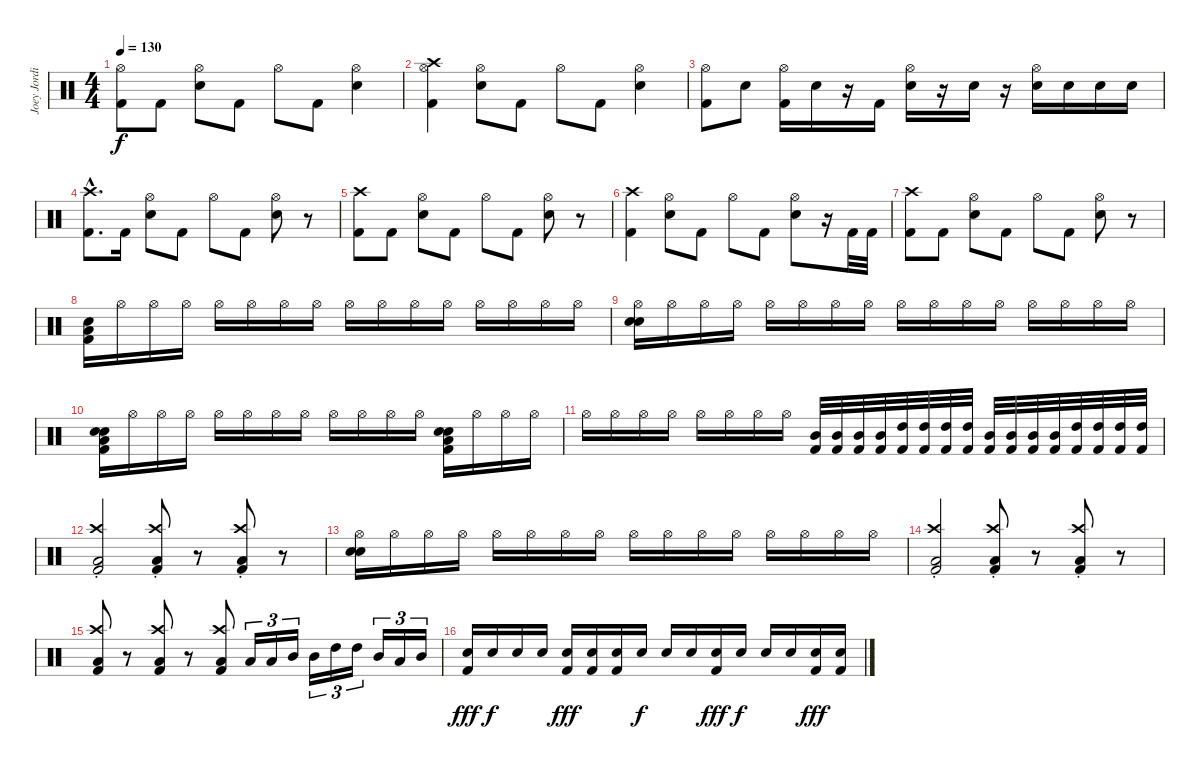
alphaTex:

\track ("Joey Jordison" "Joey Jordi") {instrument percussion}
\staff {score}
\articulation defaults
\ts (4 4)
\tempo 130
\clef neutral
\ks c
("Hi-Hat (open)" "Kick (hit) 2").8{dy f} "Kick (hit) 2".8 ("Hi-Hat (open)" "Electric Snare (hit)").8 "Kick (hit) 2".8 "Hi-Hat (open)".8 "Kick (hit) 2".8 ("Hi-Hat (open)" "Electric Snare (hit)").4 |
("Hi-Hat (open)" "Crash high (hit)" "Kick (hit) 2").4 ("Hi-Hat (open)" "Electric Snare (hit)").8 "Kick (hit) 2".8 "Hi-Hat (open)".8 "Kick (hit) 2".8 ("Hi-Hat (open)" "Electric Snare (hit)").4 |
("Hi-Hat (open)" "Kick (hit) 2").8 "Electric Snare (hit)".8 ("Hi-Hat (open)" "Kick (hit) 2").16 "Electric Snare (hit)".16 r.16 "Kick (hit) 2".16 ("Hi-Hat (open)" "Electric Snare (hit)").16 r.16 "Electric Snare (hit)".16 r.16 ("Hi-Hat (open)" "Electric Snare (hit)").16 "Electric Snare (hit)".16 "Electric Snare (hit)".16 "Electric Snare (hit)".16 |
("Crash high (hit)"{hac} "Kick (hit) 2"{hac}).8{d} "Kick (hit) 2".16 ("Hi-Hat (open)" "Electric Snare (hit)").8 "Kick (hit) 2".8 "Hi-Hat (open)".8 "Kick (hit) 2".8 ("Hi-Hat (open)" "Electric Snare (hit)").8 r.8 |
("Crash high (hit)" "Kick (hit) 2").8 "Kick (hit) 2".8 ("Hi-Hat (open)" "Electric Snare (hit)").8 "Kick (hit) 2".8 "Hi-Hat (open)".8 "Kick (hit) 2".8 ("Hi-Hat (open)" "Electric Snare (hit)").8 r.8 |
("Crash high (hit)" "Kick (hit) 2").4 ("Hi-Hat (open)" "Electric Snare (hit)").8 "Kick (hit) 2".8 "Hi-Hat (open)".8 "Kick (hit) 2".8 ("Hi-Hat (open)" "Electric Snare (hit)").8 r.16 "Kick (hit) 2".32 "Kick (hit) 2".32 |
("Crash high (hit)" "Kick (hit) 2").8 "Kick (hit) 2".8 ("Hi-Hat (open)" "Electric Snare (hit)").8 "Kick (hit) 2".8 "Hi-Hat (open)".8 "Kick (hit) 2".8 ("Hi-Hat (open)" "Electric Snare (hit)").8 r.8 |
("Snare (hit)" "Low Floor Tom (hit)" "Kick (hit) 2").16 "Hi-Hat (open)".16 "Hi-Hat (open)".16 "Hi-Hat (open)".16 "Hi-Hat (open)".16 "Hi-Hat (open)".16 "Hi-Hat (open)".16 "Hi-Hat (open)".16 "Hi-Hat (open)".16 "Hi-Hat (open)".16 "Hi-Hat (open)".16 "Hi-Hat (open)".16 "Hi-Hat (open)".16 "Hi-Hat (open)".16 "Hi-Hat (open)".16 "Hi-Hat (open)".16 |
("Hi-Hat (open)" "Snare (hit)" "Snare (hit)").16 "Hi-Hat (open)".16 "Hi-Hat (open)".16 "Hi-Hat (open)".16 "Hi-Hat (open)".16 "Hi-Hat (open)".16 "Hi-Hat (open)".16 "Hi-Hat (open)".16 "Hi-Hat (open)".16 "Hi-Hat (open)".16 "Hi-Hat (open)".16 "Hi-Hat (open)".16 "Hi-Hat (open)".16 "Hi-Hat (open)".16 "Hi-Hat (open)".16 "Hi-Hat (open)".16 |
("Snare (hit)" "Electric Snare (hit)" "Low Floor Tom (hit)" "Kick (hit) 2").16 "Hi-Hat (open)".16 "Hi-Hat (open)".16 "Hi-Hat (open)".16 "Hi-Hat (open)".16 "Hi-Hat (open)".16 "Hi-Hat (open)".16 "Hi-Hat (open)".16 "Hi-Hat (open)".16 "Hi-Hat (open)".16 "Hi-Hat (open)".16 "Hi-Hat (open)".16 ("Snare (hit)" "Electric Snare (hit)" "Low Floor Tom (hit)" "Kick (hit) 2").16 "Hi-Hat (open)".16 "Hi-Hat (open)".16 "Hi-Hat (open)".16 |
"Hi-Hat (open)".16 "Hi-Hat (open)".16 "Hi-Hat (open)".16 "Hi-Hat (open)".16 "Hi-Hat (open)".16 "Hi-Hat (open)".16 "Hi-Hat (open)".16 "Hi-Hat (open)".16 ("Mid Tom (hit)" "Kick (hit) 2").32 ("Mid Tom (hit)" "Kick (hit) 2").32 ("Mid Tom (hit)" "Kick (hit) 2").32 ("Mid Tom (hit)" "Kick (hit) 2").32 ("High Tom (hit)" "Kick (hit) 2").32 ("High Tom (hit)" "Kick (hit) 2").32 ("High Tom (hit)" "Kick (hit) 2").32 ("High Tom (hit)" "Kick (hit) 2").32 ("Mid Tom (hit)" "Kick (hit) 2").32 ("Mid Tom (hit)" "Kick (hit) 2").32 ("Mid Tom (hit)" "Kick (hit) 2").32 ("Mid Tom (hit)" "Kick (hit) 2").32 ("High Tom (hit)" "Kick (hit) 2").32 ("High Tom (hit)" "Kick (hit) 2").32 ("High Tom (hit)" "Kick (hit) 2").32 ("High Tom (hit)" "Kick (hit) 2").32 |
("Crash high (hit)"{st} "Low Floor Tom (hit)" "Kick (hit) 2").2 ("Crash high (hit)"{st} "Kick (hit) 2" "Low Floor Tom (hit)").8 r.8 ("Crash high (hit)"{st} "Kick (hit) 2" "Low Floor Tom (hit)").8 r.8 |
("Hi-Hat (open)" "Snare (hit)" "Snare (hit)").16 "Hi-Hat (open)".16 "Hi-Hat (open)".16 "Hi-Hat (open)".16 "Hi-Hat (open)".16 "Hi-Hat (open)".16 "Hi-Hat (open)".16 "Hi-Hat (open)".16 "Hi-Hat (open)".16 "Hi-Hat (open)".16 "Hi-Hat (open)".16 "Hi-Hat (open)".16 "Hi-Hat (open)".16 "Hi-Hat (open)".16 "Hi-Hat (open)".16 "Hi-Hat (open)".16 |
("Crash high (hit)"{st} "Low Floor Tom (hit)" "Kick (hit) 2").2 ("Crash high (hit)"{st} "Kick (hit) 2" "Low Floor Tom (hit)").8 r.8 ("Crash high (hit)"{st} "Kick (hit) 2" "Low Floor Tom (hit)").8 r.8 |
("Crash high (hit)" "Kick (hit) 2" "Low Floor Tom (hit)").8 r.8 ("Crash high (hit)" "Kick (hit) 2" "Low Floor Tom (hit)").8 r.8 ("Crash high (hit)" "Kick (hit) 2" "Low Floor Tom (hit)").8 "Low Tom (hit)".16{tu (3 2)} "Low Tom (hit)".16{tu (3 2)} "Mid Tom (hit)".16{tu (3 2)} "Mid Tom (hit)".16{tu (3 2)} "High Tom (hit)".16{tu (3 2)} "High Tom (hit)".16{tu (3 2)} "Mid Tom (hit)".16{tu (3 2)} "Low Tom (hit)".16{tu (3 2)} "Mid Tom (hit)".16{tu (3 2)} |
("Snare (hit)" "Kick (hit) 2").16{dy fff} "Snare (hit)".16{dy f} "Snare (hit)".16 "Snare (hit)".16 ("Snare (hit)" "Kick (hit) 2").16{dy fff} ("Snare (hit)" "Kick (hit) 2").16 ("Snare (hit)" "Kick (hit) 2").16 "Snare (hit)".16{dy f} "Snare (hit)".16 "Snare (hit)".16 ("Snare (hit)" "Kick (hit) 2").16{dy fff} "Snare (hit)".16{dy f} "Snare (hit)".16 "Snare (hit)".16 ("Snare (hit)" "Kick (hit) 2").16{dy fff} ("Snare (hit)" "Kick (hit) 2").16
